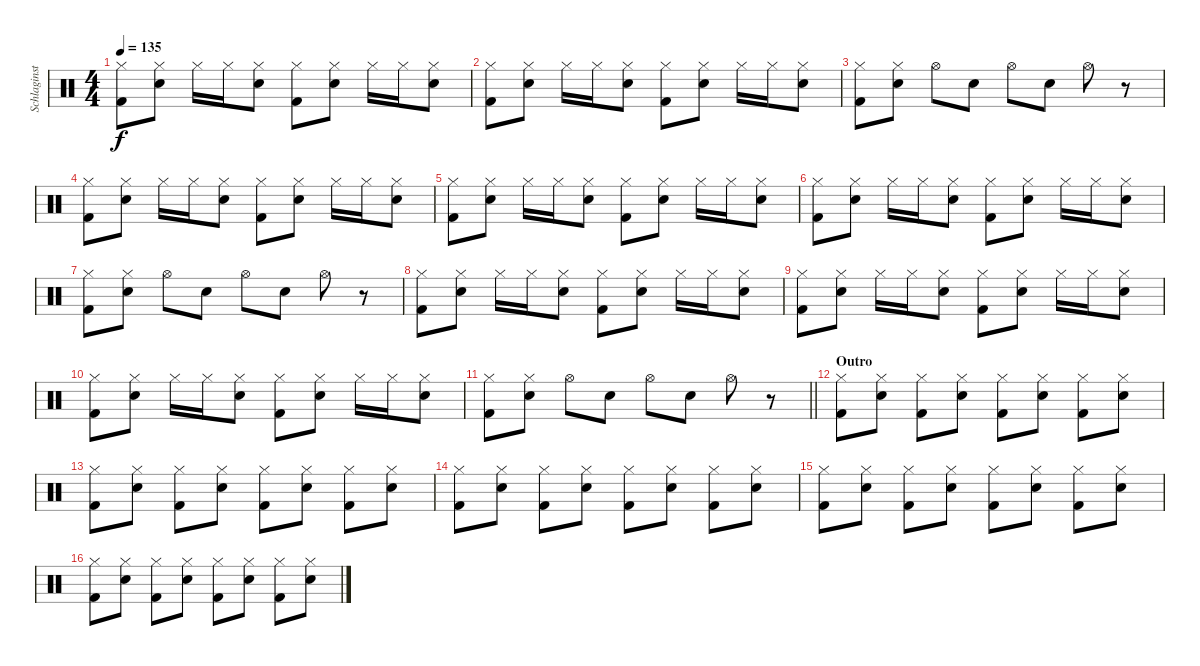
\track ("Schlaginstrumente - Auswahl" "Schlaginst") {instrument percussion}
\staff {score}
\articulation defaults
\ts (4 4)
\tempo 135
\clef neutral
\ks c
("Hi-Hat (closed)" "Kick (hit) 2").8{dy f} ("Hi-Hat (closed)" "Snare (hit) 2").8 "Hi-Hat (closed)".16 "Hi-Hat (closed)".16 ("Hi-Hat (closed)" "Snare (hit) 2").8 ("Hi-Hat (closed)" "Kick (hit) 2").8 ("Hi-Hat (closed)" "Snare (hit) 2").8 "Hi-Hat (closed)".16 "Hi-Hat (closed)".16 ("Hi-Hat (closed)" "Snare (hit) 2").8 |
("Hi-Hat (closed)" "Kick (hit) 2").8 ("Hi-Hat (closed)" "Snare (hit) 2").8 "Hi-Hat (closed)".16 "Hi-Hat (closed)".16 ("Hi-Hat (closed)" "Snare (hit) 2").8 ("Hi-Hat (closed)" "Kick (hit) 2").8 ("Hi-Hat (closed)" "Snare (hit) 2").8 "Hi-Hat (closed)".16 "Hi-Hat (closed)".16 ("Hi-Hat (closed)" "Snare (hit) 2").8 |
("Hi-Hat (closed)" "Kick (hit) 2").8 ("Hi-Hat (closed)" "Snare (hit) 2").8 "Hi-Hat (open)".8 "Snare (hit) 2".8 "Hi-Hat (open)".8 "Snare (hit) 2".8 "Hi-Hat (open)".8 r.8 |
("Hi-Hat (closed)" "Kick (hit) 2").8 ("Hi-Hat (closed)" "Snare (hit) 2").8 "Hi-Hat (closed)".16 "Hi-Hat (closed)".16 ("Hi-Hat (closed)" "Snare (hit) 2").8 ("Hi-Hat (closed)" "Kick (hit) 2").8 ("Hi-Hat (closed)" "Snare (hit) 2").8 "Hi-Hat (closed)".16 "Hi-Hat (closed)".16 ("Hi-Hat (closed)" "Snare (hit) 2").8 |
("Hi-Hat (closed)" "Kick (hit) 2").8 ("Hi-Hat (closed)" "Snare (hit) 2").8 "Hi-Hat (closed)".16 "Hi-Hat (closed)".16 ("Hi-Hat (closed)" "Snare (hit) 2").8 ("Hi-Hat (closed)" "Kick (hit) 2").8 ("Hi-Hat (closed)" "Snare (hit) 2").8 "Hi-Hat (closed)".16 "Hi-Hat (closed)".16 ("Hi-Hat (closed)" "Snare (hit) 2").8 |
("Hi-Hat (closed)" "Kick (hit) 2").8 ("Hi-Hat (closed)" "Snare (hit) 2").8 "Hi-Hat (closed)".16 "Hi-Hat (closed)".16 ("Hi-Hat (closed)" "Snare (hit) 2").8 ("Hi-Hat (closed)" "Kick (hit) 2").8 ("Hi-Hat (closed)" "Snare (hit) 2").8 "Hi-Hat (closed)".16 "Hi-Hat (closed)".16 ("Hi-Hat (closed)" "Snare (hit) 2").8 |
("Hi-Hat (closed)" "Kick (hit) 2").8 ("Hi-Hat (closed)" "Snare (hit) 2").8 "Hi-Hat (open)".8 "Snare (hit) 2".8 "Hi-Hat (open)".8 "Snare (hit) 2".8 "Hi-Hat (open)".8 r.8 |
("Hi-Hat (closed)" "Kick (hit) 2").8 ("Hi-Hat (closed)" "Snare (hit) 2").8 "Hi-Hat (closed)".16 "Hi-Hat (closed)".16 ("Hi-Hat (closed)" "Snare (hit) 2").8 ("Hi-Hat (closed)" "Kick (hit) 2").8 ("Hi-Hat (closed)" "Snare (hit) 2").8 "Hi-Hat (closed)".16 "Hi-Hat (closed)".16 ("Hi-Hat (closed)" "Snare (hit) 2").8 |
("Hi-Hat (closed)" "Kick (hit) 2").8 ("Hi-Hat (closed)" "Snare (hit) 2").8 "Hi-Hat (closed)".16 "Hi-Hat (closed)".16 ("Hi-Hat (closed)" "Snare (hit) 2").8 ("Hi-Hat (closed)" "Kick (hit) 2").8 ("Hi-Hat (closed)" "Snare (hit) 2").8 "Hi-Hat (closed)".16 "Hi-Hat (closed)".16 ("Hi-Hat (closed)" "Snare (hit) 2").8 |
("Hi-Hat (closed)" "Kick (hit) 2").8 ("Hi-Hat (closed)" "Snare (hit) 2").8 "Hi-Hat (closed)".16 "Hi-Hat (closed)".16 ("Hi-Hat (closed)" "Snare (hit) 2").8 ("Hi-Hat (closed)" "Kick (hit) 2").8 ("Hi-Hat (closed)" "Snare (hit) 2").8 "Hi-Hat (closed)".16 "Hi-Hat (closed)".16 ("Hi-Hat (closed)" "Snare (hit) 2").8 |
\barLineRight lightlight
("Hi-Hat (closed)" "Kick (hit) 2").8 ("Hi-Hat (closed)" "Snare (hit) 2").8 "Hi-Hat (open)".8 "Snare (hit) 2".8 "Hi-Hat (open)".8 "Snare (hit) 2".8 "Hi-Hat (open)".8 r.8 |
\section ("" "Outro")
("Hi-Hat (closed)" "Kick (hit) 2").8 ("Hi-Hat (closed)" "Snare (hit) 2").8 ("Hi-Hat (closed)" "Kick (hit) 2").8 ("Hi-Hat (closed)" "Snare (hit) 2").8 ("Hi-Hat (closed)" "Kick (hit) 2").8 ("Hi-Hat (closed)" "Snare (hit) 2").8 ("Hi-Hat (closed)" "Kick (hit) 2").8 ("Hi-Hat (closed)" "Snare (hit) 2").8 |
("Hi-Hat (closed)" "Kick (hit) 2").8 ("Hi-Hat (closed)" "Snare (hit) 2").8 ("Hi-Hat (closed)" "Kick (hit) 2").8 ("Hi-Hat (closed)" "Snare (hit) 2").8 ("Hi-Hat (closed)" "Kick (hit) 2").8 ("Hi-Hat (closed)" "Snare (hit) 2").8 ("Hi-Hat (closed)" "Kick (hit) 2").8 ("Hi-Hat (closed)" "Snare (hit) 2").8 |
("Hi-Hat (closed)" "Kick (hit) 2").8 ("Hi-Hat (closed)" "Snare (hit) 2").8 ("Hi-Hat (closed)" "Kick (hit) 2").8 ("Hi-Hat (closed)" "Snare (hit) 2").8 ("Hi-Hat (closed)" "Kick (hit) 2").8 ("Hi-Hat (closed)" "Snare (hit) 2").8 ("Hi-Hat (closed)" "Kick (hit) 2").8 ("Hi-Hat (closed)" "Snare (hit) 2").8 |
("Hi-Hat (closed)" "Kick (hit) 2").8 ("Hi-Hat (closed)" "Snare (hit) 2").8 ("Hi-Hat (closed)" "Kick (hit) 2").8 ("Hi-Hat (closed)" "Snare (hit) 2").8 ("Hi-Hat (closed)" "Kick (hit) 2").8 ("Hi-Hat (closed)" "Snare (hit) 2").8 ("Hi-Hat (closed)" "Kick (hit) 2").8 ("Hi-Hat (closed)" "Snare (hit) 2").8 |
("Hi-Hat (closed)" "Kick (hit) 2").8 ("Hi-Hat (closed)" "Snare (hit) 2").8 ("Hi-Hat (closed)" "Kick (hit) 2").8 ("Hi-Hat (closed)" "Snare (hit) 2").8 ("Hi-Hat (closed)" "Kick (hit) 2").8 ("Hi-Hat (closed)" "Snare (hit) 2").8 ("Hi-Hat (closed)" "Kick (hit) 2").8 ("Hi-Hat (closed)" "Snare (hit) 2").8
